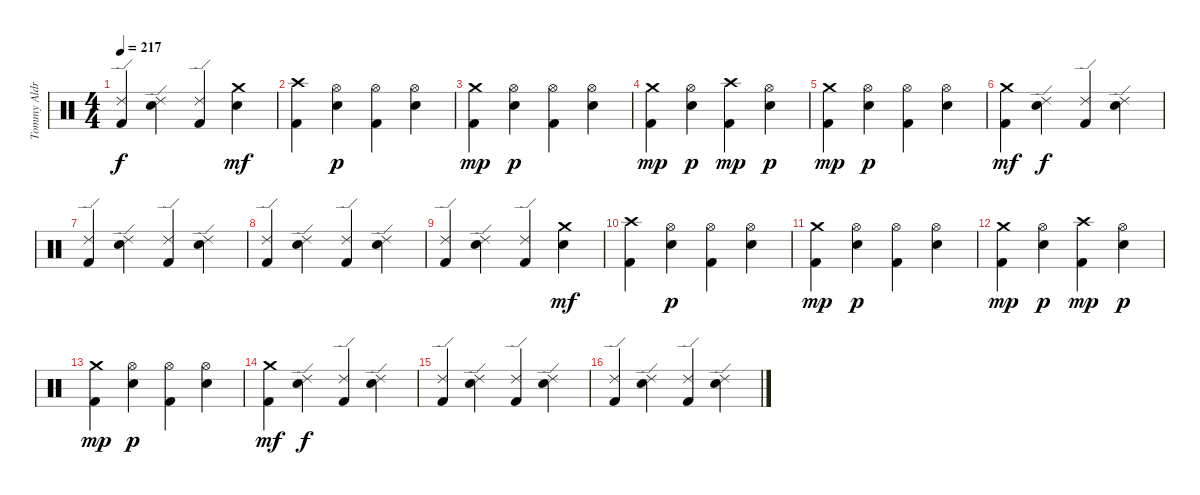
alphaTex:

\track ("Tommy Aldridge" "Tommy Aldr") {instrument percussion}
\staff {score}
\articulation defaults
\ts (4 4)
\tempo 217
\clef neutral
\ks c
("Kick (hit) 2" "Ride (edge) 2").4{dy f} ("Ride (edge) 2" "Snare (hit) 2").4 ("Kick (hit) 2" "Ride (edge) 2").4 ("Crash medium (hit)" "Snare (hit) 2").4{dy mf} |
("Kick (hit) 2" "Crash high (hit)").4 ("Hi-Hat (open)" "Snare (hit) 2").4{dy p} ("Kick (hit) 2" "Hi-Hat (open)").4 ("Hi-Hat (open)" "Snare (hit) 2").4 |
("Kick (hit) 2" "Crash medium (hit)").4{dy mp} ("Hi-Hat (open)" "Snare (hit) 2").4{dy p} ("Kick (hit) 2" "Hi-Hat (open)").4 ("Hi-Hat (open)" "Snare (hit) 2").4 |
("Kick (hit) 2" "Crash medium (hit)").4{dy mp} ("Hi-Hat (open)" "Snare (hit) 2").4{dy p} ("Kick (hit) 2" "Crash high (hit)").4{dy mp} ("Hi-Hat (open)" "Snare (hit) 2").4{dy p} |
("Kick (hit) 2" "Crash medium (hit)").4{dy mp} ("Hi-Hat (open)" "Snare (hit) 2").4{dy p} ("Kick (hit) 2" "Hi-Hat (open)").4 ("Hi-Hat (open)" "Snare (hit) 2").4 |
("Kick (hit) 2" "Crash medium (hit)").4{dy mf} ("Ride (edge) 2" "Snare (hit) 2").4{dy f} ("Kick (hit) 2" "Ride (edge) 2").4 ("Ride (edge) 2" "Snare (hit) 2").4 |
("Kick (hit) 2" "Ride (edge) 2").4 ("Ride (edge) 2" "Snare (hit) 2").4 ("Kick (hit) 2" "Ride (edge) 2").4 ("Ride (edge) 2" "Snare (hit) 2").4 |
("Kick (hit) 2" "Ride (edge) 2").4 ("Ride (edge) 2" "Snare (hit) 2").4 ("Kick (hit) 2" "Ride (edge) 2").4 ("Ride (edge) 2" "Snare (hit) 2").4 |
("Kick (hit) 2" "Ride (edge) 2").4 ("Ride (edge) 2" "Snare (hit) 2").4 ("Kick (hit) 2" "Ride (edge) 2").4 ("Crash medium (hit)" "Snare (hit) 2").4{dy mf} |
("Kick (hit) 2" "Crash high (hit)").4 ("Hi-Hat (open)" "Snare (hit) 2").4{dy p} ("Kick (hit) 2" "Hi-Hat (open)").4 ("Hi-Hat (open)" "Snare (hit) 2").4 |
("Kick (hit) 2" "Crash medium (hit)").4{dy mp} ("Hi-Hat (open)" "Snare (hit) 2").4{dy p} ("Kick (hit) 2" "Hi-Hat (open)").4 ("Hi-Hat (open)" "Snare (hit) 2").4 |
("Kick (hit) 2" "Crash medium (hit)").4{dy mp} ("Hi-Hat (open)" "Snare (hit) 2").4{dy p} ("Kick (hit) 2" "Crash high (hit)").4{dy mp} ("Hi-Hat (open)" "Snare (hit) 2").4{dy p} |
("Kick (hit) 2" "Crash medium (hit)").4{dy mp} ("Hi-Hat (open)" "Snare (hit) 2").4{dy p} ("Kick (hit) 2" "Hi-Hat (open)").4 ("Hi-Hat (open)" "Snare (hit) 2").4 |
("Kick (hit) 2" "Crash medium (hit)").4{dy mf} ("Ride (edge) 2" "Snare (hit) 2").4{dy f} ("Kick (hit) 2" "Ride (edge) 2").4 ("Ride (edge) 2" "Snare (hit) 2").4 |
("Kick (hit) 2" "Ride (edge) 2").4 ("Ride (edge) 2" "Snare (hit) 2").4 ("Kick (hit) 2" "Ride (edge) 2").4 ("Ride (edge) 2" "Snare (hit) 2").4 |
("Kick (hit) 2" "Ride (edge) 2").4 ("Ride (edge) 2" "Snare (hit) 2").4 ("Kick (hit) 2" "Ride (edge) 2").4 ("Ride (edge) 2" "Snare (hit) 2").4
